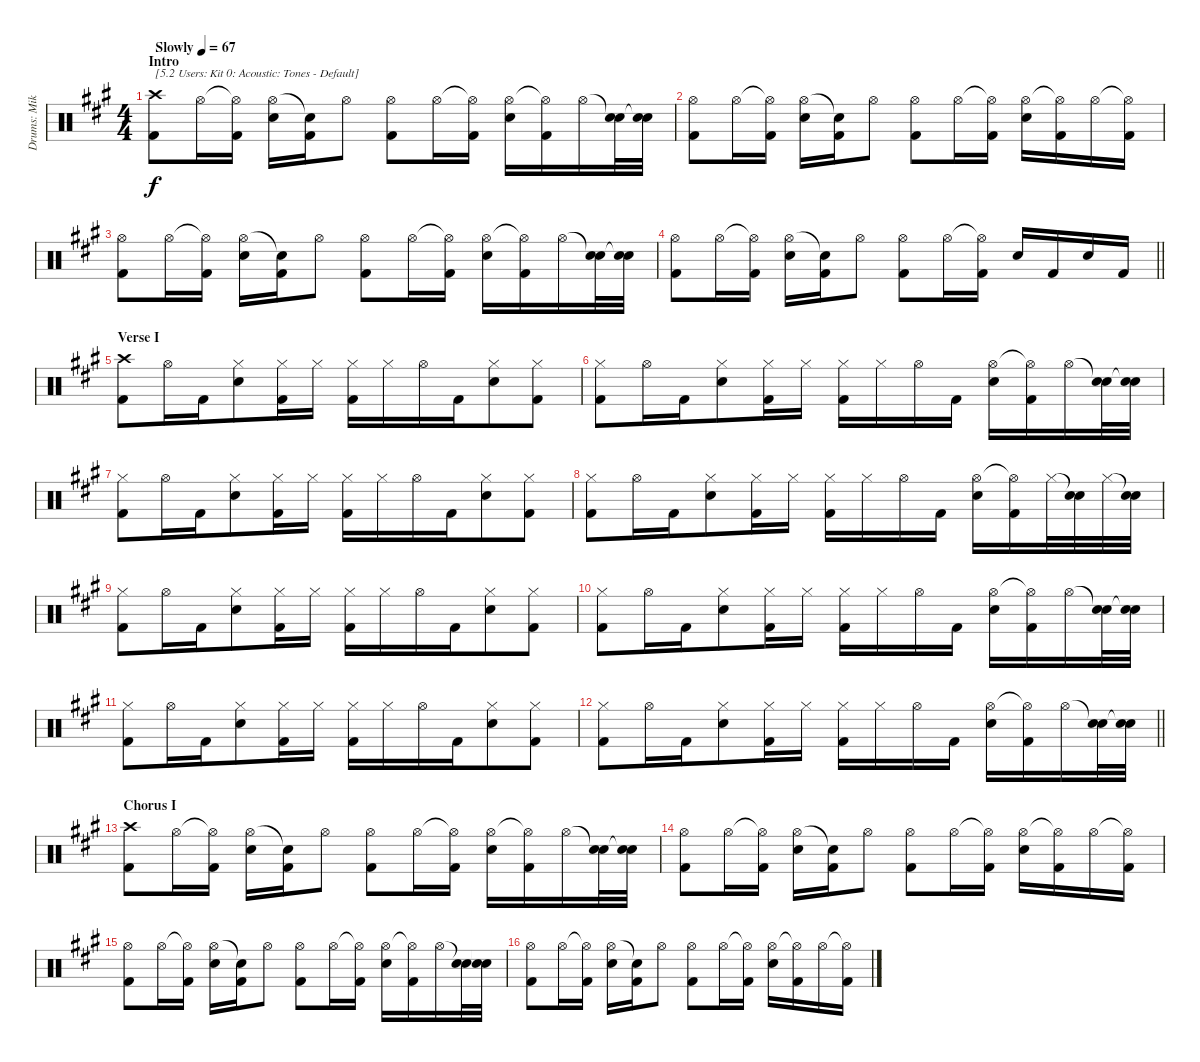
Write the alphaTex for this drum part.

\track ("Drums: Mike" "Drums: Mik") {instrument percussion}
\staff {score}
\articulation defaults
\ts (4 4)
\section ("" "Intro")
\tempo (67 "Slowly")
\clef neutral
\ks a
("Crash high (hit)" "Kick (hit) 2").8{txt "[5.2 Users: Kit 0: Acoustic: Tones - Default]" dy f} "Hi-Hat (open)".16 ("Hi-Hat (open)"{t} "Kick (hit) 2").16 ("Hi-Hat (open)" "Electric Snare (hit)").16 ("Snare (hit)"{t} "Kick (hit) 2").16 "Hi-Hat (open)".8 ("Hi-Hat (open)" "Kick (hit) 2").8 "Hi-Hat (open)".16 ("Hi-Hat (open)"{t} "Kick (hit) 2").16 ("Hi-Hat (open)" "Electric Snare (hit)").16 ("Hi-Hat (open)"{t} "Kick (hit) 2").16 "Hi-Hat (open)".16 ("Snare (hit)"{t} "Electric Snare (hit)").32 ("Snare (hit)"{t} "Electric Snare (hit)").32 |
("Hi-Hat (open)" "Kick (hit) 2").8 "Hi-Hat (open)".16 ("Hi-Hat (open)"{t} "Kick (hit) 2").16 ("Hi-Hat (open)" "Electric Snare (hit)").16 ("Snare (hit)"{t} "Kick (hit) 2").16 "Hi-Hat (open)".8 ("Hi-Hat (open)" "Kick (hit) 2").8 "Hi-Hat (open)".16 ("Hi-Hat (open)"{t} "Kick (hit) 2").16 ("Hi-Hat (open)" "Electric Snare (hit)").16 ("Hi-Hat (open)"{t} "Kick (hit) 2").16 "Hi-Hat (open)".16 ("Hi-Hat (open)"{t} "Kick (hit) 2").16 |
("Hi-Hat (open)" "Kick (hit) 2").8 "Hi-Hat (open)".16 ("Hi-Hat (open)"{t} "Kick (hit) 2").16 ("Hi-Hat (open)" "Electric Snare (hit)").16 ("Snare (hit)"{t} "Kick (hit) 2").16 "Hi-Hat (open)".8 ("Hi-Hat (open)" "Kick (hit) 2").8 "Hi-Hat (open)".16 ("Hi-Hat (open)"{t} "Kick (hit) 2").16 ("Hi-Hat (open)" "Electric Snare (hit)").16 ("Hi-Hat (open)"{t} "Kick (hit) 2").16 "Hi-Hat (open)".16 ("Snare (hit)"{t} "Electric Snare (hit)").32 ("Snare (hit)"{t} "Electric Snare (hit)").32 |
\barLineRight lightlight
("Hi-Hat (open)" "Kick (hit) 2").8 "Hi-Hat (open)".16 ("Hi-Hat (open)"{t} "Kick (hit) 2").16 ("Hi-Hat (open)" "Electric Snare (hit)").16 ("Snare (hit)"{t} "Kick (hit) 2").16 "Hi-Hat (open)".8 ("Hi-Hat (open)" "Kick (hit) 2").8 "Hi-Hat (open)".16 ("Hi-Hat (open)"{t} "Kick (hit) 2").16 "Electric Snare (hit)".16 "Kick (hit) 2".16 "Electric Snare (hit)".16 "Kick (hit) 2".16 |
\section ("" "Verse I")
("Crash high (hit)" "Kick (hit) 2").8 "Hi-Hat (open)".16 "Kick (hit) 2".16{beam merge} ("Hi-Hat (closed)" "Electric Snare (hit)").8 ("Hi-Hat (closed)" "Kick (hit) 2").16 "Hi-Hat (closed)".16 ("Hi-Hat (closed)" "Kick (hit) 2").16 "Hi-Hat (closed)".16 "Hi-Hat (open)".16 "Kick (hit) 2".16{beam merge} ("Hi-Hat (closed)" "Electric Snare (hit)").8 ("Hi-Hat (closed)" "Kick (hit) 2").8 |
("Hi-Hat (closed)" "Kick (hit) 2").8 "Hi-Hat (open)".16 "Kick (hit) 2".16{beam merge} ("Hi-Hat (closed)" "Electric Snare (hit)").8 ("Hi-Hat (closed)" "Kick (hit) 2").16 "Hi-Hat (closed)".16 ("Hi-Hat (closed)" "Kick (hit) 2").16 "Hi-Hat (closed)".16 "Hi-Hat (open)".16 "Kick (hit) 2".16 ("Hi-Hat (open)" "Electric Snare (hit)").16 ("Hi-Hat (open)"{t} "Kick (hit) 2").16 "Hi-Hat (open)".16 ("Snare (hit)"{t} "Electric Snare (hit)").32 ("Snare (hit)"{t} "Electric Snare (hit)").32 |
("Hi-Hat (closed)" "Kick (hit) 2").8 "Hi-Hat (open)".16 "Kick (hit) 2".16{beam merge} ("Hi-Hat (closed)" "Electric Snare (hit)").8 ("Hi-Hat (closed)" "Kick (hit) 2").16 "Hi-Hat (closed)".16 ("Hi-Hat (closed)" "Kick (hit) 2").16 "Hi-Hat (closed)".16 "Hi-Hat (open)".16 "Kick (hit) 2".16{beam merge} ("Hi-Hat (closed)" "Electric Snare (hit)").8 ("Hi-Hat (closed)" "Kick (hit) 2").8 |
("Hi-Hat (closed)" "Kick (hit) 2").8 "Hi-Hat (open)".16 "Kick (hit) 2".16{beam merge} ("Hi-Hat (closed)" "Electric Snare (hit)").8 ("Hi-Hat (closed)" "Kick (hit) 2").16 "Hi-Hat (closed)".16 ("Hi-Hat (closed)" "Kick (hit) 2").16 "Hi-Hat (closed)".16 "Hi-Hat (open)".16 "Kick (hit) 2".16 ("Hi-Hat (open)" "Electric Snare (hit)").16 ("Hi-Hat (open)"{t} "Kick (hit) 2").16 "Hi-Hat (closed)".32 ("Snare (hit)"{t} "Electric Snare (hit)").32 "Hi-Hat (closed)".32 ("Snare (hit)"{t} "Electric Snare (hit)").32 |
("Hi-Hat (closed)" "Kick (hit) 2").8 "Hi-Hat (open)".16 "Kick (hit) 2".16{beam merge} ("Hi-Hat (closed)" "Electric Snare (hit)").8 ("Hi-Hat (closed)" "Kick (hit) 2").16 "Hi-Hat (closed)".16 ("Hi-Hat (closed)" "Kick (hit) 2").16 "Hi-Hat (closed)".16 "Hi-Hat (open)".16 "Kick (hit) 2".16{beam merge} ("Hi-Hat (closed)" "Electric Snare (hit)").8 ("Hi-Hat (closed)" "Kick (hit) 2").8 |
("Hi-Hat (closed)" "Kick (hit) 2").8 "Hi-Hat (open)".16 "Kick (hit) 2".16{beam merge} ("Hi-Hat (closed)" "Electric Snare (hit)").8 ("Hi-Hat (closed)" "Kick (hit) 2").16 "Hi-Hat (closed)".16 ("Hi-Hat (closed)" "Kick (hit) 2").16 "Hi-Hat (closed)".16 "Hi-Hat (open)".16 "Kick (hit) 2".16 ("Hi-Hat (open)" "Electric Snare (hit)").16 ("Hi-Hat (open)"{t} "Kick (hit) 2").16 "Hi-Hat (open)".16 ("Snare (hit)"{t} "Electric Snare (hit)").32 ("Snare (hit)"{t} "Electric Snare (hit)").32 |
("Hi-Hat (closed)" "Kick (hit) 2").8 "Hi-Hat (open)".16 "Kick (hit) 2".16{beam merge} ("Hi-Hat (closed)" "Electric Snare (hit)").8 ("Hi-Hat (closed)" "Kick (hit) 2").16 "Hi-Hat (closed)".16 ("Hi-Hat (closed)" "Kick (hit) 2").16 "Hi-Hat (closed)".16 "Hi-Hat (open)".16 "Kick (hit) 2".16{beam merge} ("Hi-Hat (closed)" "Electric Snare (hit)").8 ("Hi-Hat (closed)" "Kick (hit) 2").8 |
\barLineRight lightlight
("Hi-Hat (closed)" "Kick (hit) 2").8 "Hi-Hat (open)".16 "Kick (hit) 2".16{beam merge} ("Hi-Hat (closed)" "Electric Snare (hit)").8 ("Hi-Hat (closed)" "Kick (hit) 2").16 "Hi-Hat (closed)".16 ("Hi-Hat (closed)" "Kick (hit) 2").16 "Hi-Hat (closed)".16 "Hi-Hat (open)".16 "Kick (hit) 2".16 ("Hi-Hat (open)" "Electric Snare (hit)").16 ("Hi-Hat (open)"{t} "Kick (hit) 2").16 "Hi-Hat (open)".16 ("Snare (hit)"{t} "Electric Snare (hit)").32 ("Snare (hit)"{t} "Electric Snare (hit)").32 |
\section ("" "Chorus I")
("Crash high (hit)" "Kick (hit) 2").8 "Hi-Hat (open)".16 ("Hi-Hat (open)"{t} "Kick (hit) 2").16 ("Hi-Hat (open)" "Electric Snare (hit)").16 ("Snare (hit)"{t} "Kick (hit) 2").16 "Hi-Hat (open)".8 ("Hi-Hat (open)" "Kick (hit) 2").8 "Hi-Hat (open)".16 ("Hi-Hat (open)"{t} "Kick (hit) 2").16 ("Hi-Hat (open)" "Electric Snare (hit)").16 ("Hi-Hat (open)"{t} "Kick (hit) 2").16 "Hi-Hat (open)".16 ("Snare (hit)"{t} "Electric Snare (hit)").32 ("Snare (hit)"{t} "Electric Snare (hit)").32 |
("Hi-Hat (open)" "Kick (hit) 2").8 "Hi-Hat (open)".16 ("Hi-Hat (open)"{t} "Kick (hit) 2").16 ("Hi-Hat (open)" "Electric Snare (hit)").16 ("Snare (hit)"{t} "Kick (hit) 2").16 "Hi-Hat (open)".8 ("Hi-Hat (open)" "Kick (hit) 2").8 "Hi-Hat (open)".16 ("Hi-Hat (open)"{t} "Kick (hit) 2").16 ("Hi-Hat (open)" "Electric Snare (hit)").16 ("Hi-Hat (open)"{t} "Kick (hit) 2").16 "Hi-Hat (open)".16 ("Hi-Hat (open)"{t} "Kick (hit) 2").16 |
("Hi-Hat (open)" "Kick (hit) 2").8 "Hi-Hat (open)".16 ("Hi-Hat (open)"{t} "Kick (hit) 2").16 ("Hi-Hat (open)" "Electric Snare (hit)").16 ("Snare (hit)"{t} "Kick (hit) 2").16 "Hi-Hat (open)".8 ("Hi-Hat (open)" "Kick (hit) 2").8 "Hi-Hat (open)".16 ("Hi-Hat (open)"{t} "Kick (hit) 2").16 ("Hi-Hat (open)" "Electric Snare (hit)").16 ("Hi-Hat (open)"{t} "Kick (hit) 2").16 "Hi-Hat (open)".16 ("Snare (hit)"{t} "Electric Snare (hit)").32 ("Snare (hit)"{t} "Electric Snare (hit)").32 |
("Hi-Hat (open)" "Kick (hit) 2").8 "Hi-Hat (open)".16 ("Hi-Hat (open)"{t} "Kick (hit) 2").16 ("Hi-Hat (open)" "Electric Snare (hit)").16 ("Snare (hit)"{t} "Kick (hit) 2").16 "Hi-Hat (open)".8 ("Hi-Hat (open)" "Kick (hit) 2").8 "Hi-Hat (open)".16 ("Hi-Hat (open)"{t} "Kick (hit) 2").16 ("Hi-Hat (open)" "Electric Snare (hit)").16 ("Hi-Hat (open)"{t} "Kick (hit) 2").16 "Hi-Hat (open)".16 ("Hi-Hat (open)"{t} "Kick (hit) 2").16
